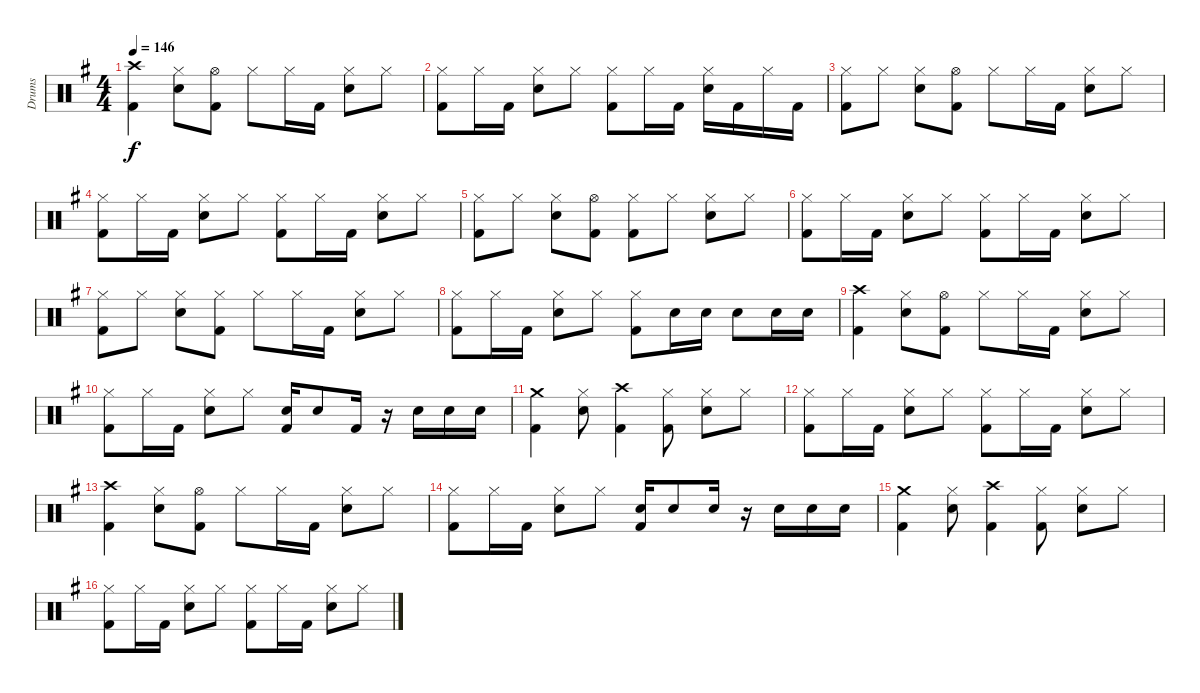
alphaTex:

\track ("Drums" "Drums") {instrument percussion}
\staff {score}
\articulation defaults
\ts (4 4)
\tempo 146
\clef neutral
\ks g
("Kick (hit) 2" "Crash high (hit)").4{dy f} ("Snare (hit) 2" "Hi-Hat (closed)").8 ("Kick (hit) 2" "Hi-Hat (open)").8 "Hi-Hat (closed)".8 "Hi-Hat (closed)".16 "Kick (hit) 2".16 ("Snare (hit) 2" "Hi-Hat (closed)").8 "Hi-Hat (closed)".8 |
("Kick (hit) 2" "Hi-Hat (closed)").8 "Hi-Hat (closed)".16 "Kick (hit) 2".16 ("Snare (hit) 2" "Hi-Hat (closed)").8 "Hi-Hat (closed)".8 ("Kick (hit) 2" "Hi-Hat (closed)").8 "Hi-Hat (closed)".16 "Kick (hit) 2".16 ("Snare (hit) 2" "Hi-Hat (closed)").16 "Kick (hit) 2".16 "Hi-Hat (closed)".16 "Kick (hit) 2".16 |
("Kick (hit) 2" "Hi-Hat (closed)").8 "Hi-Hat (closed)".8 ("Snare (hit) 2" "Hi-Hat (closed)").8 ("Kick (hit) 2" "Hi-Hat (open)").8 "Hi-Hat (closed)".8 "Hi-Hat (closed)".16 "Kick (hit) 2".16 ("Snare (hit) 2" "Hi-Hat (closed)").8 "Hi-Hat (closed)".8 |
("Kick (hit) 2" "Hi-Hat (closed)").8 "Hi-Hat (closed)".16 "Kick (hit) 2".16 ("Snare (hit) 2" "Hi-Hat (closed)").8 "Hi-Hat (closed)".8 ("Kick (hit) 2" "Hi-Hat (closed)").8 "Hi-Hat (closed)".16 "Kick (hit) 2".16 ("Snare (hit) 2" "Hi-Hat (closed)").8 "Hi-Hat (closed)".8 |
("Kick (hit) 2" "Hi-Hat (closed)").8 "Hi-Hat (closed)".8 ("Snare (hit) 2" "Hi-Hat (closed)").8 ("Kick (hit) 2" "Hi-Hat (open)").8 ("Kick (hit) 2" "Hi-Hat (closed)").8 "Hi-Hat (closed)".8 ("Snare (hit) 2" "Hi-Hat (closed)").8 "Hi-Hat (closed)".8 |
("Kick (hit) 2" "Hi-Hat (closed)").8 "Hi-Hat (closed)".16 "Kick (hit) 2".16 ("Snare (hit) 2" "Hi-Hat (closed)").8 "Hi-Hat (closed)".8 ("Kick (hit) 2" "Hi-Hat (closed)").8 "Hi-Hat (closed)".16 "Kick (hit) 2".16 ("Snare (hit) 2" "Hi-Hat (closed)").8 "Hi-Hat (closed)".8 |
("Kick (hit) 2" "Hi-Hat (closed)").8 "Hi-Hat (closed)".8 ("Snare (hit) 2" "Hi-Hat (closed)").8 ("Kick (hit) 2" "Hi-Hat (closed)").8 "Hi-Hat (closed)".8 "Hi-Hat (closed)".16 "Kick (hit) 2".16 ("Snare (hit) 2" "Hi-Hat (closed)").8 "Hi-Hat (closed)".8 |
("Kick (hit) 2" "Hi-Hat (closed)").8 "Hi-Hat (closed)".16 "Kick (hit) 2".16 ("Snare (hit) 2" "Hi-Hat (closed)").8 "Hi-Hat (closed)".8 ("Kick (hit) 2" "Hi-Hat (closed)").8 "Snare (hit) 2".16 "Snare (hit) 2".16 "Snare (hit) 2".8 "Snare (hit) 2".16 "Snare (hit) 2".16 |
("Kick (hit) 2" "Crash high (hit)").4 ("Snare (hit) 2" "Hi-Hat (closed)").8 ("Kick (hit) 2" "Hi-Hat (open)").8 "Hi-Hat (closed)".8 "Hi-Hat (closed)".16 "Kick (hit) 2".16 ("Snare (hit) 2" "Hi-Hat (closed)").8 "Hi-Hat (closed)".8 |
("Kick (hit) 2" "Hi-Hat (closed)").8 "Hi-Hat (closed)".16 "Kick (hit) 2".16 ("Snare (hit) 2" "Hi-Hat (closed)").8 "Hi-Hat (closed)".8 ("Kick (hit) 2" "Snare (hit) 2").16 "Snare (hit) 2".8 "Kick (hit) 2".16 r.16 "Snare (hit) 2".16 "Snare (hit) 2".16 "Snare (hit) 2".16 |
("Kick (hit) 2" "Crash medium (hit)").4 ("Snare (hit) 2" "Hi-Hat (closed)").8 ("Kick (hit) 2" "Crash high (hit)").4 ("Kick (hit) 2" "Hi-Hat (closed)").8 ("Snare (hit) 2" "Hi-Hat (closed)").8 "Hi-Hat (closed)".8 |
("Kick (hit) 2" "Hi-Hat (closed)").8 "Hi-Hat (closed)".16 "Kick (hit) 2".16 ("Snare (hit) 2" "Hi-Hat (closed)").8 "Hi-Hat (closed)".8 ("Kick (hit) 2" "Hi-Hat (closed)").8 "Hi-Hat (closed)".16 "Kick (hit) 2".16 ("Snare (hit) 2" "Hi-Hat (closed)").8 "Hi-Hat (closed)".8 |
("Kick (hit) 2" "Crash high (hit)").4 ("Snare (hit) 2" "Hi-Hat (closed)").8 ("Kick (hit) 2" "Hi-Hat (open)").8 "Hi-Hat (closed)".8 "Hi-Hat (closed)".16 "Kick (hit) 2".16 ("Snare (hit) 2" "Hi-Hat (closed)").8 "Hi-Hat (closed)".8 |
("Kick (hit) 2" "Hi-Hat (closed)").8 "Hi-Hat (closed)".16 "Kick (hit) 2".16 ("Snare (hit) 2" "Hi-Hat (closed)").8 "Hi-Hat (closed)".8 ("Kick (hit) 2" "Snare (hit) 2").16 "Snare (hit) 2".8 "Snare (hit) 2".16 r.16 "Snare (hit) 2".16 "Snare (hit) 2".16 "Snare (hit) 2".16 |
("Kick (hit) 2" "Crash medium (hit)").4 ("Snare (hit) 2" "Hi-Hat (closed)").8 ("Kick (hit) 2" "Crash high (hit)").4 ("Kick (hit) 2" "Hi-Hat (closed)").8 ("Snare (hit) 2" "Hi-Hat (closed)").8 "Hi-Hat (closed)".8 |
("Kick (hit) 2" "Hi-Hat (closed)").8 "Hi-Hat (closed)".16 "Kick (hit) 2".16 ("Snare (hit) 2" "Hi-Hat (closed)").8 "Hi-Hat (closed)".8 ("Kick (hit) 2" "Hi-Hat (closed)").8 "Hi-Hat (closed)".16 "Kick (hit) 2".16 ("Snare (hit) 2" "Hi-Hat (closed)").8 "Hi-Hat (closed)".8
